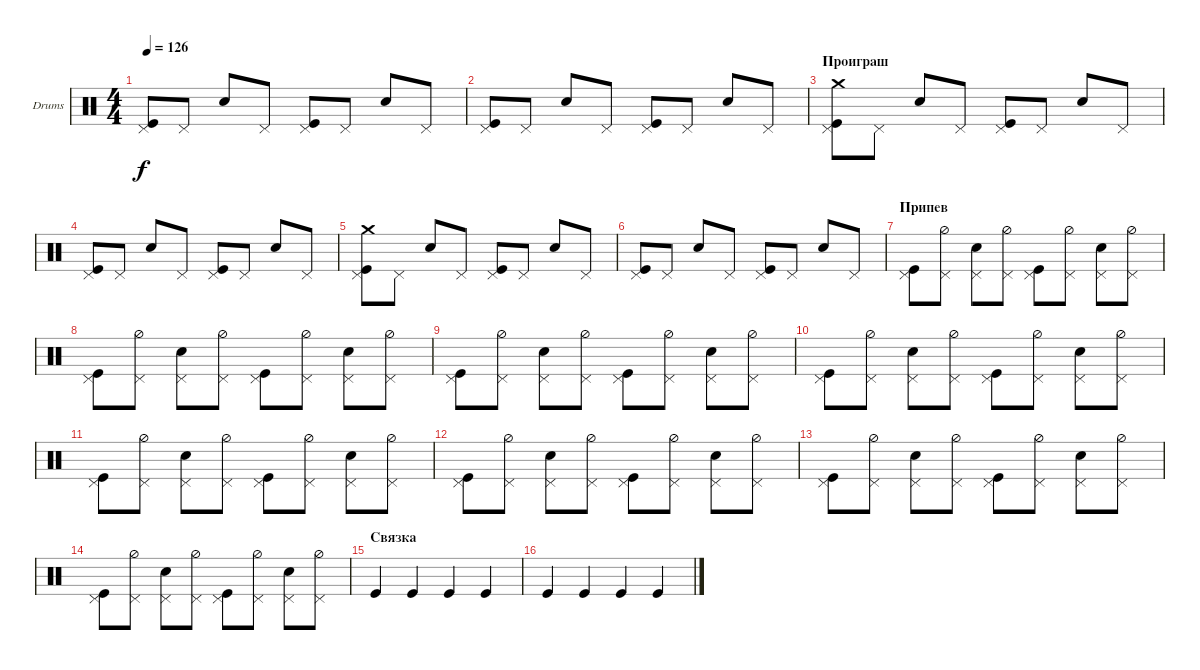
\defaultSystemsLayout 4
\bracketExtendMode groupsimilarinstruments
\firstSystemTrackNameOrientation horizontal
\otherSystemsTrackNameOrientation horizontal
\track ("Е. Кулаков" "Drums") {instrument percussion}
\staff {score}
\articulation defaults
\ts (4 4)
\tempo 126
\clef neutral
\ks c
("Kick (hit)" "Pedal Hi-Hat (hit)").8{dy f} "Pedal Hi-Hat (hit)".8 "Snare (hit) 2".8 "Pedal Hi-Hat (hit)".8 ("Kick (hit)" "Pedal Hi-Hat (hit)").8 "Pedal Hi-Hat (hit)".8 "Snare (hit) 2".8 "Pedal Hi-Hat (hit)".8 |
("Kick (hit)" "Pedal Hi-Hat (hit)").8 "Pedal Hi-Hat (hit)".8 "Snare (hit) 2".8 "Pedal Hi-Hat (hit)".8 ("Kick (hit)" "Pedal Hi-Hat (hit)").8 "Pedal Hi-Hat (hit)".8 "Snare (hit) 2".8 "Pedal Hi-Hat (hit)".8 |
\section ("" "Проиграш")
("Kick (hit)" "Pedal Hi-Hat (hit)" "Crash medium (hit)").8 "Pedal Hi-Hat (hit)".8 "Snare (hit) 2".8 "Pedal Hi-Hat (hit)".8 ("Kick (hit)" "Pedal Hi-Hat (hit)").8 "Pedal Hi-Hat (hit)".8 "Snare (hit) 2".8 "Pedal Hi-Hat (hit)".8 |
("Kick (hit)" "Pedal Hi-Hat (hit)").8 "Pedal Hi-Hat (hit)".8 "Snare (hit) 2".8 "Pedal Hi-Hat (hit)".8 ("Kick (hit)" "Pedal Hi-Hat (hit)").8 "Pedal Hi-Hat (hit)".8 "Snare (hit) 2".8 "Pedal Hi-Hat (hit)".8 |
("Kick (hit)" "Pedal Hi-Hat (hit)" "Crash medium (hit)").8 "Pedal Hi-Hat (hit)".8 "Snare (hit) 2".8 "Pedal Hi-Hat (hit)".8 ("Kick (hit)" "Pedal Hi-Hat (hit)").8 "Pedal Hi-Hat (hit)".8 "Snare (hit) 2".8 "Pedal Hi-Hat (hit)".8 |
("Kick (hit)" "Pedal Hi-Hat (hit)").8 "Pedal Hi-Hat (hit)".8 "Snare (hit) 2".8 "Pedal Hi-Hat (hit)".8 ("Kick (hit)" "Pedal Hi-Hat (hit)").8 "Pedal Hi-Hat (hit)".8 "Snare (hit) 2".8 "Pedal Hi-Hat (hit)".8 |
\section ("" "Припев")
("Kick (hit)" "Pedal Hi-Hat (hit)").8 ("Hi-Hat (half)" "Pedal Hi-Hat (hit)").8 ("Pedal Hi-Hat (hit)" "Snare (hit) 2").8 ("Hi-Hat (half)" "Pedal Hi-Hat (hit)").8 ("Kick (hit)" "Pedal Hi-Hat (hit)").8 ("Hi-Hat (half)" "Pedal Hi-Hat (hit)").8 ("Pedal Hi-Hat (hit)" "Snare (hit) 2").8 ("Hi-Hat (half)" "Pedal Hi-Hat (hit)").8 |
("Kick (hit)" "Pedal Hi-Hat (hit)").8 ("Hi-Hat (half)" "Pedal Hi-Hat (hit)").8 ("Pedal Hi-Hat (hit)" "Snare (hit) 2").8 ("Hi-Hat (half)" "Pedal Hi-Hat (hit)").8 ("Kick (hit)" "Pedal Hi-Hat (hit)").8 ("Hi-Hat (half)" "Pedal Hi-Hat (hit)").8 ("Pedal Hi-Hat (hit)" "Snare (hit) 2").8 ("Hi-Hat (half)" "Pedal Hi-Hat (hit)").8 |
("Kick (hit)" "Pedal Hi-Hat (hit)").8 ("Hi-Hat (half)" "Pedal Hi-Hat (hit)").8 ("Pedal Hi-Hat (hit)" "Snare (hit) 2").8 ("Hi-Hat (half)" "Pedal Hi-Hat (hit)").8 ("Kick (hit)" "Pedal Hi-Hat (hit)").8 ("Hi-Hat (half)" "Pedal Hi-Hat (hit)").8 ("Pedal Hi-Hat (hit)" "Snare (hit) 2").8 ("Hi-Hat (half)" "Pedal Hi-Hat (hit)").8 |
("Kick (hit)" "Pedal Hi-Hat (hit)").8 ("Hi-Hat (half)" "Pedal Hi-Hat (hit)").8 ("Pedal Hi-Hat (hit)" "Snare (hit) 2").8 ("Hi-Hat (half)" "Pedal Hi-Hat (hit)").8 ("Kick (hit)" "Pedal Hi-Hat (hit)").8 ("Hi-Hat (half)" "Pedal Hi-Hat (hit)").8 ("Pedal Hi-Hat (hit)" "Snare (hit) 2").8 ("Hi-Hat (half)" "Pedal Hi-Hat (hit)").8 |
("Kick (hit)" "Pedal Hi-Hat (hit)").8 ("Hi-Hat (half)" "Pedal Hi-Hat (hit)").8 ("Pedal Hi-Hat (hit)" "Snare (hit) 2").8 ("Hi-Hat (half)" "Pedal Hi-Hat (hit)").8 ("Kick (hit)" "Pedal Hi-Hat (hit)").8 ("Hi-Hat (half)" "Pedal Hi-Hat (hit)").8 ("Pedal Hi-Hat (hit)" "Snare (hit) 2").8 ("Hi-Hat (half)" "Pedal Hi-Hat (hit)").8 |
("Kick (hit)" "Pedal Hi-Hat (hit)").8 ("Hi-Hat (half)" "Pedal Hi-Hat (hit)").8 ("Pedal Hi-Hat (hit)" "Snare (hit) 2").8 ("Hi-Hat (half)" "Pedal Hi-Hat (hit)").8 ("Kick (hit)" "Pedal Hi-Hat (hit)").8 ("Hi-Hat (half)" "Pedal Hi-Hat (hit)").8 ("Pedal Hi-Hat (hit)" "Snare (hit) 2").8 ("Hi-Hat (half)" "Pedal Hi-Hat (hit)").8 |
("Kick (hit)" "Pedal Hi-Hat (hit)").8 ("Hi-Hat (half)" "Pedal Hi-Hat (hit)").8 ("Pedal Hi-Hat (hit)" "Snare (hit) 2").8 ("Hi-Hat (half)" "Pedal Hi-Hat (hit)").8 ("Kick (hit)" "Pedal Hi-Hat (hit)").8 ("Hi-Hat (half)" "Pedal Hi-Hat (hit)").8 ("Pedal Hi-Hat (hit)" "Snare (hit) 2").8 ("Hi-Hat (half)" "Pedal Hi-Hat (hit)").8 |
("Kick (hit)" "Pedal Hi-Hat (hit)").8 ("Hi-Hat (half)" "Pedal Hi-Hat (hit)").8 ("Pedal Hi-Hat (hit)" "Snare (hit) 2").8 ("Hi-Hat (half)" "Pedal Hi-Hat (hit)").8 ("Kick (hit)" "Pedal Hi-Hat (hit)").8 ("Hi-Hat (half)" "Pedal Hi-Hat (hit)").8 ("Pedal Hi-Hat (hit)" "Snare (hit) 2").8 ("Hi-Hat (half)" "Pedal Hi-Hat (hit)").8 |
\section ("" "Связка")
"Kick (hit)".4 "Kick (hit)".4 "Kick (hit)".4 "Kick (hit)".4 |
"Kick (hit)".4 "Kick (hit)".4 "Kick (hit)".4 "Kick (hit)".4
